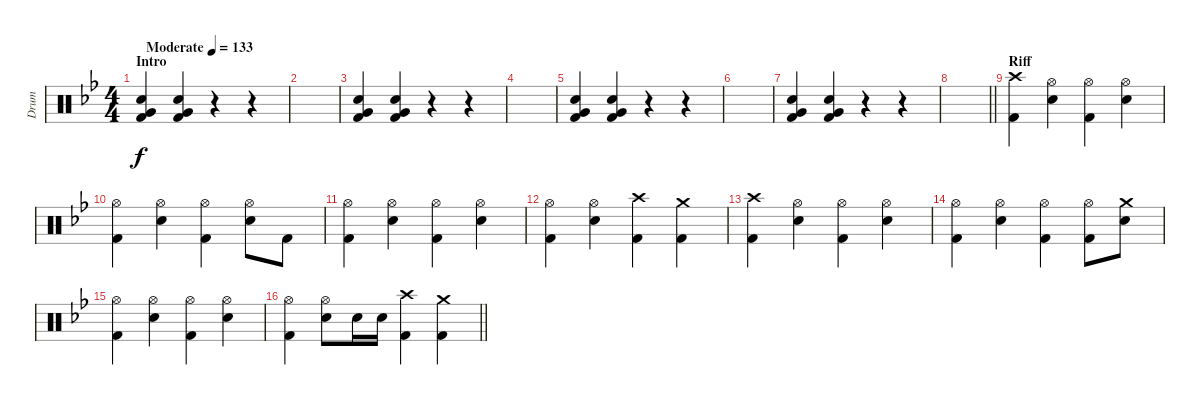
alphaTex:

\track ("Drum" "Drum") {instrument percussion}
\staff {score}
\articulation defaults
\ts (4 4)
\section ("" "Intro")
\tempo (133 "Moderate")
\clef neutral
\ks bb
("Very Low Tom (hit)" "Snare (hit) 2" "Kick (hit) 2").4{dy f} ("Very Low Tom (hit)" "Snare (hit) 2" "Kick (hit) 2").4 r.4 r.4 |
|
("Very Low Tom (hit)" "Snare (hit) 2" "Kick (hit) 2").4 ("Very Low Tom (hit)" "Snare (hit) 2" "Kick (hit) 2").4 r.4 r.4 |
|
("Very Low Tom (hit)" "Snare (hit) 2" "Kick (hit) 2").4 ("Very Low Tom (hit)" "Snare (hit) 2" "Kick (hit) 2").4 r.4 r.4 |
|
("Very Low Tom (hit)" "Snare (hit) 2" "Kick (hit) 2").4 ("Very Low Tom (hit)" "Snare (hit) 2" "Kick (hit) 2").4 r.4 r.4 |
\barLineRight lightlight
|
\section ("" "Riff")
("Crash high (hit)" "Kick (hit) 2").4 ("Hi-Hat (open)" "Snare (hit) 2").4 ("Hi-Hat (open)" "Kick (hit) 2").4 ("Hi-Hat (open)" "Snare (hit) 2").4 |
("Hi-Hat (open)" "Kick (hit) 2").4 ("Hi-Hat (open)" "Snare (hit) 2").4 ("Hi-Hat (open)" "Kick (hit) 2").4 ("Hi-Hat (open)" "Snare (hit) 2").8 "Kick (hit) 2".8 |
("Hi-Hat (open)" "Kick (hit) 2").4 ("Hi-Hat (open)" "Snare (hit) 2").4 ("Hi-Hat (open)" "Kick (hit) 2").4 ("Hi-Hat (open)" "Snare (hit) 2").4 |
("Hi-Hat (open)" "Kick (hit) 2").4 ("Hi-Hat (open)" "Snare (hit) 2").4 ("Crash high (hit)" "Kick (hit) 2").4 ("Crash medium (hit)" "Kick (hit) 2").4 |
("Crash high (hit)" "Kick (hit) 2").4 ("Hi-Hat (open)" "Snare (hit) 2").4 ("Hi-Hat (open)" "Kick (hit) 2").4 ("Hi-Hat (open)" "Snare (hit) 2").4 |
("Hi-Hat (open)" "Kick (hit) 2").4 ("Hi-Hat (open)" "Snare (hit) 2").4 ("Hi-Hat (open)" "Kick (hit) 2").4 ("Hi-Hat (open)" "Kick (hit) 2").8 ("Crash medium (hit)" "Snare (hit) 2").8 |
("Hi-Hat (open)" "Kick (hit) 2").4 ("Hi-Hat (open)" "Snare (hit) 2").4 ("Hi-Hat (open)" "Kick (hit) 2").4 ("Hi-Hat (open)" "Snare (hit) 2").4 |
\barLineRight lightlight
("Hi-Hat (open)" "Kick (hit) 2").4 ("Hi-Hat (open)" "Snare (hit) 2").8 "Snare (hit) 2".16 "Snare (hit) 2".16 ("Crash high (hit)" "Kick (hit) 2").4 ("Crash medium (hit)" "Kick (hit) 2").4
